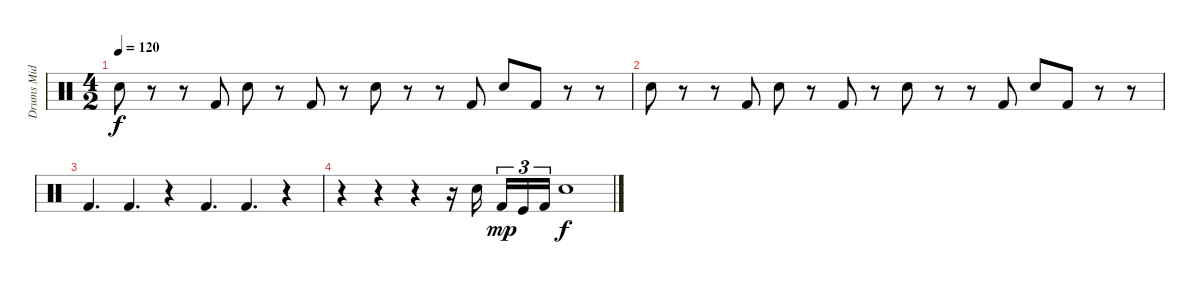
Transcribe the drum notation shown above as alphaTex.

\track ("Drums Mid" "Drums Mid") {instrument percussion}
\staff {score}
\articulation defaults
\ts (4 2)
\tempo 120
\clef neutral
\ks c "Snare (hit) 2".8{dy f}
r.8 r.8 "Kick (hit) 2".8 "Snare (hit) 2".8 r.8 "Kick (hit) 2".8 r.8 "Snare (hit) 2".8 r.8 r.8 "Kick (hit) 2".8 "Snare (hit) 2".8 "Kick (hit) 2".8 r.8 r.8 |
"Snare (hit) 2".8 r.8 r.8 "Kick (hit) 2".8 "Snare (hit) 2".8 r.8 "Kick (hit) 2".8 r.8 "Snare (hit) 2".8 r.8 r.8 "Kick (hit) 2".8 "Snare (hit) 2".8 "Kick (hit) 2".8 r.8 r.8 |
"Kick (hit) 2".4{d} "Kick (hit) 2".4{d} r.4 "Kick (hit) 2".4{d} "Kick (hit) 2".4{d} r.4 |
r.4 r.4 r.4 r.16 "Snare (hit) 2".16{beam splitsecondary} "Kick (hit) 2".16{tu (3 2) dy mp} "Kick (hit)".16{tu (3 2)} "Kick (hit) 2".16{tu (3 2)} "Snare (hit) 2".1{dy f}
